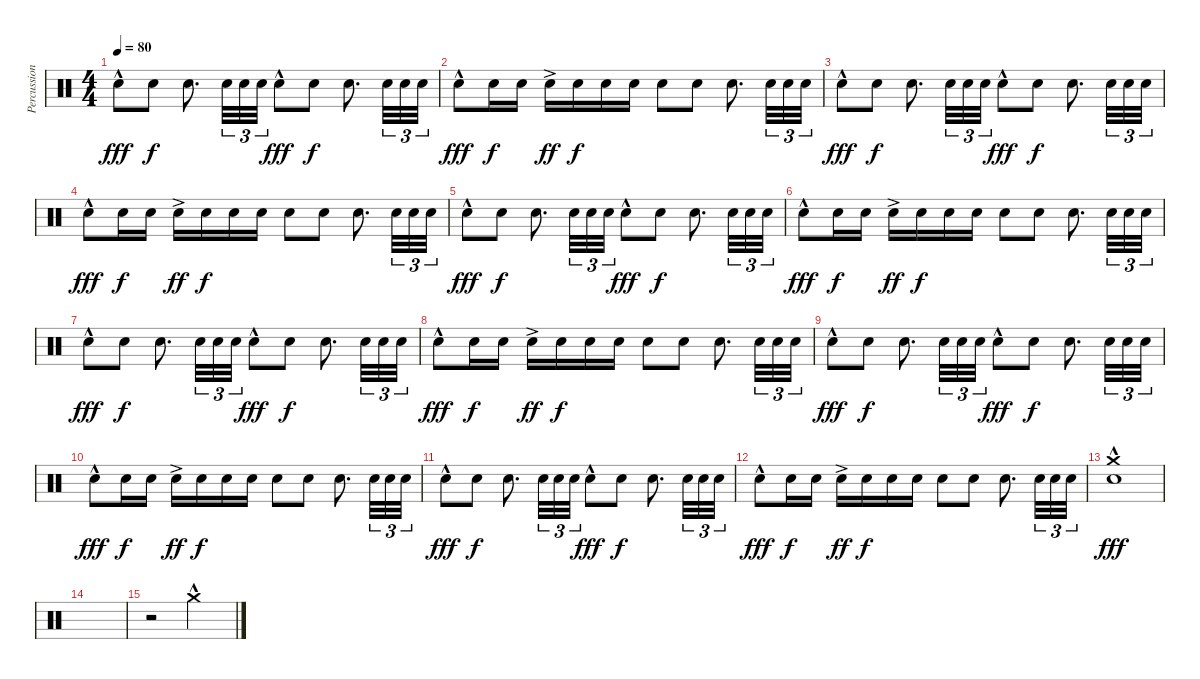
\track ("Percussion" "Percussion") {instrument percussion}
\staff {score}
\articulation defaults
\ts (4 4)
\tempo 80
\clef neutral
\ks c "Snare (hit) 2"{hac}.8{dy fff} "Snare (hit) 2".8{dy f} "Snare (hit) 2".8{d} "Snare (hit) 2".32{tu (3 2)} "Snare (hit) 2".32{tu (3 2)} "Snare (hit) 2".32{tu (3 2)} "Snare (hit) 2"{hac}.8{dy fff} "Snare (hit) 2".8{dy f} "Snare (hit) 2".8{d} "Snare (hit) 2".32{tu (3 2)} "Snare (hit) 2".32{tu (3 2)} "Snare (hit) 2".32{tu (3 2)}
|
"Snare (hit) 2"{hac}.8{dy fff} "Snare (hit) 2".16{dy f} "Snare (hit) 2".16 "Snare (hit) 2"{ac}.16{dy ff} "Snare (hit) 2".16{dy f} "Snare (hit) 2".16 "Snare (hit) 2".16 "Snare (hit) 2".8 "Snare (hit) 2".8 "Snare (hit) 2".8{d} "Snare (hit) 2".32{tu (3 2)} "Snare (hit) 2".32{tu (3 2)} "Snare (hit) 2".32{tu (3 2)} |
"Snare (hit) 2"{hac}.8{dy fff} "Snare (hit) 2".8{dy f} "Snare (hit) 2".8{d} "Snare (hit) 2".32{tu (3 2)} "Snare (hit) 2".32{tu (3 2)} "Snare (hit) 2".32{tu (3 2)} "Snare (hit) 2"{hac}.8{dy fff} "Snare (hit) 2".8{dy f} "Snare (hit) 2".8{d} "Snare (hit) 2".32{tu (3 2)} "Snare (hit) 2".32{tu (3 2)} "Snare (hit) 2".32{tu (3 2)} |
"Snare (hit) 2"{hac}.8{dy fff} "Snare (hit) 2".16{dy f} "Snare (hit) 2".16 "Snare (hit) 2"{ac}.16{dy ff} "Snare (hit) 2".16{dy f} "Snare (hit) 2".16 "Snare (hit) 2".16 "Snare (hit) 2".8 "Snare (hit) 2".8 "Snare (hit) 2".8{d} "Snare (hit) 2".32{tu (3 2)} "Snare (hit) 2".32{tu (3 2)} "Snare (hit) 2".32{tu (3 2)} |
"Snare (hit) 2"{hac}.8{dy fff} "Snare (hit) 2".8{dy f} "Snare (hit) 2".8{d} "Snare (hit) 2".32{tu (3 2)} "Snare (hit) 2".32{tu (3 2)} "Snare (hit) 2".32{tu (3 2)} "Snare (hit) 2"{hac}.8{dy fff} "Snare (hit) 2".8{dy f} "Snare (hit) 2".8{d} "Snare (hit) 2".32{tu (3 2)} "Snare (hit) 2".32{tu (3 2)} "Snare (hit) 2".32{tu (3 2)} |
"Snare (hit) 2"{hac}.8{dy fff} "Snare (hit) 2".16{dy f} "Snare (hit) 2".16 "Snare (hit) 2"{ac}.16{dy ff} "Snare (hit) 2".16{dy f} "Snare (hit) 2".16 "Snare (hit) 2".16 "Snare (hit) 2".8 "Snare (hit) 2".8 "Snare (hit) 2".8{d} "Snare (hit) 2".32{tu (3 2)} "Snare (hit) 2".32{tu (3 2)} "Snare (hit) 2".32{tu (3 2)} |
"Snare (hit) 2"{hac}.8{dy fff} "Snare (hit) 2".8{dy f} "Snare (hit) 2".8{d} "Snare (hit) 2".32{tu (3 2)} "Snare (hit) 2".32{tu (3 2)} "Snare (hit) 2".32{tu (3 2)} "Snare (hit) 2"{hac}.8{dy fff} "Snare (hit) 2".8{dy f} "Snare (hit) 2".8{d} "Snare (hit) 2".32{tu (3 2)} "Snare (hit) 2".32{tu (3 2)} "Snare (hit) 2".32{tu (3 2)} |
"Snare (hit) 2"{hac}.8{dy fff} "Snare (hit) 2".16{dy f} "Snare (hit) 2".16 "Snare (hit) 2"{ac}.16{dy ff} "Snare (hit) 2".16{dy f} "Snare (hit) 2".16 "Snare (hit) 2".16 "Snare (hit) 2".8 "Snare (hit) 2".8 "Snare (hit) 2".8{d} "Snare (hit) 2".32{tu (3 2)} "Snare (hit) 2".32{tu (3 2)} "Snare (hit) 2".32{tu (3 2)} |
"Snare (hit) 2"{hac}.8{dy fff} "Snare (hit) 2".8{dy f} "Snare (hit) 2".8{d} "Snare (hit) 2".32{tu (3 2)} "Snare (hit) 2".32{tu (3 2)} "Snare (hit) 2".32{tu (3 2)} "Snare (hit) 2"{hac}.8{dy fff} "Snare (hit) 2".8{dy f} "Snare (hit) 2".8{d} "Snare (hit) 2".32{tu (3 2)} "Snare (hit) 2".32{tu (3 2)} "Snare (hit) 2".32{tu (3 2)} |
"Snare (hit) 2"{hac}.8{dy fff} "Snare (hit) 2".16{dy f} "Snare (hit) 2".16 "Snare (hit) 2"{ac}.16{dy ff} "Snare (hit) 2".16{dy f} "Snare (hit) 2".16 "Snare (hit) 2".16 "Snare (hit) 2".8 "Snare (hit) 2".8 "Snare (hit) 2".8{d} "Snare (hit) 2".32{tu (3 2)} "Snare (hit) 2".32{tu (3 2)} "Snare (hit) 2".32{tu (3 2)} |
"Snare (hit) 2"{hac}.8{dy fff} "Snare (hit) 2".8{dy f} "Snare (hit) 2".8{d} "Snare (hit) 2".32{tu (3 2)} "Snare (hit) 2".32{tu (3 2)} "Snare (hit) 2".32{tu (3 2)} "Snare (hit) 2"{hac}.8{dy fff} "Snare (hit) 2".8{dy f} "Snare (hit) 2".8{d} "Snare (hit) 2".32{tu (3 2)} "Snare (hit) 2".32{tu (3 2)} "Snare (hit) 2".32{tu (3 2)} |
"Snare (hit) 2"{hac}.8{dy fff} "Snare (hit) 2".16{dy f} "Snare (hit) 2".16 "Snare (hit) 2"{ac}.16{dy ff} "Snare (hit) 2".16{dy f} "Snare (hit) 2".16 "Snare (hit) 2".16 "Snare (hit) 2".8 "Snare (hit) 2".8 "Snare (hit) 2".8{d} "Snare (hit) 2".32{tu (3 2)} "Snare (hit) 2".32{tu (3 2)} "Snare (hit) 2".32{tu (3 2)} |
("Crash medium (hit)"{hac} "Snare (hit) 2"{hac}).1{dy fff} |
|
r.2 "Crash medium (hit)"{hac}.2
